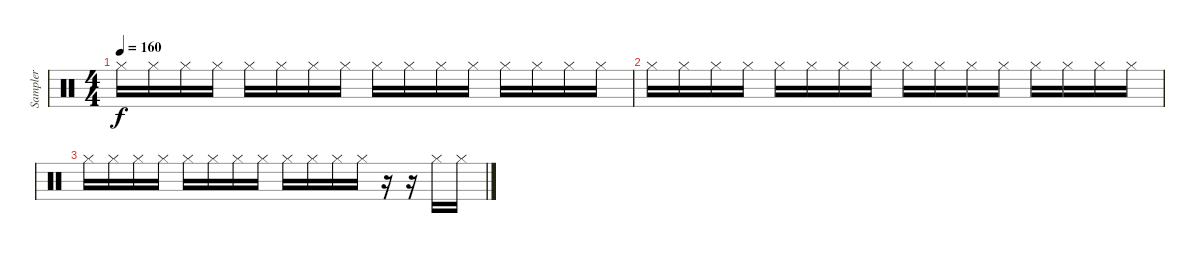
\track ("Sampler" "Sampler") {instrument percussion}
\staff {score}
\articulation defaults
\ts (4 4)
\tempo 160
\clef neutral
\ks c "Hi-Hat (closed)".16{dy f} "Hi-Hat (closed)".16 "Hi-Hat (closed)".16 "Hi-Hat (closed)".16 "Hi-Hat (closed)".16 "Hi-Hat (closed)".16 "Hi-Hat (closed)".16 "Hi-Hat (closed)".16 "Hi-Hat (closed)".16 "Hi-Hat (closed)".16 "Hi-Hat (closed)".16 "Hi-Hat (closed)".16 "Hi-Hat (closed)".16 "Hi-Hat (closed)".16 "Hi-Hat (closed)".16 "Hi-Hat (closed)".16
|
"Hi-Hat (closed)".16 "Hi-Hat (closed)".16 "Hi-Hat (closed)".16 "Hi-Hat (closed)".16 "Hi-Hat (closed)".16 "Hi-Hat (closed)".16 "Hi-Hat (closed)".16 "Hi-Hat (closed)".16 "Hi-Hat (closed)".16 "Hi-Hat (closed)".16 "Hi-Hat (closed)".16 "Hi-Hat (closed)".16 "Hi-Hat (closed)".16 "Hi-Hat (closed)".16 "Hi-Hat (closed)".16 "Hi-Hat (closed)".16 |
"Hi-Hat (closed)".16 "Hi-Hat (closed)".16 "Hi-Hat (closed)".16 "Hi-Hat (closed)".16 "Hi-Hat (closed)".16 "Hi-Hat (closed)".16 "Hi-Hat (closed)".16 "Hi-Hat (closed)".16 "Hi-Hat (closed)".16 "Hi-Hat (closed)".16 "Hi-Hat (closed)".16 "Hi-Hat (closed)".16 r.16 r.16 "Hi-Hat (closed)".16 "Hi-Hat (closed)".16
